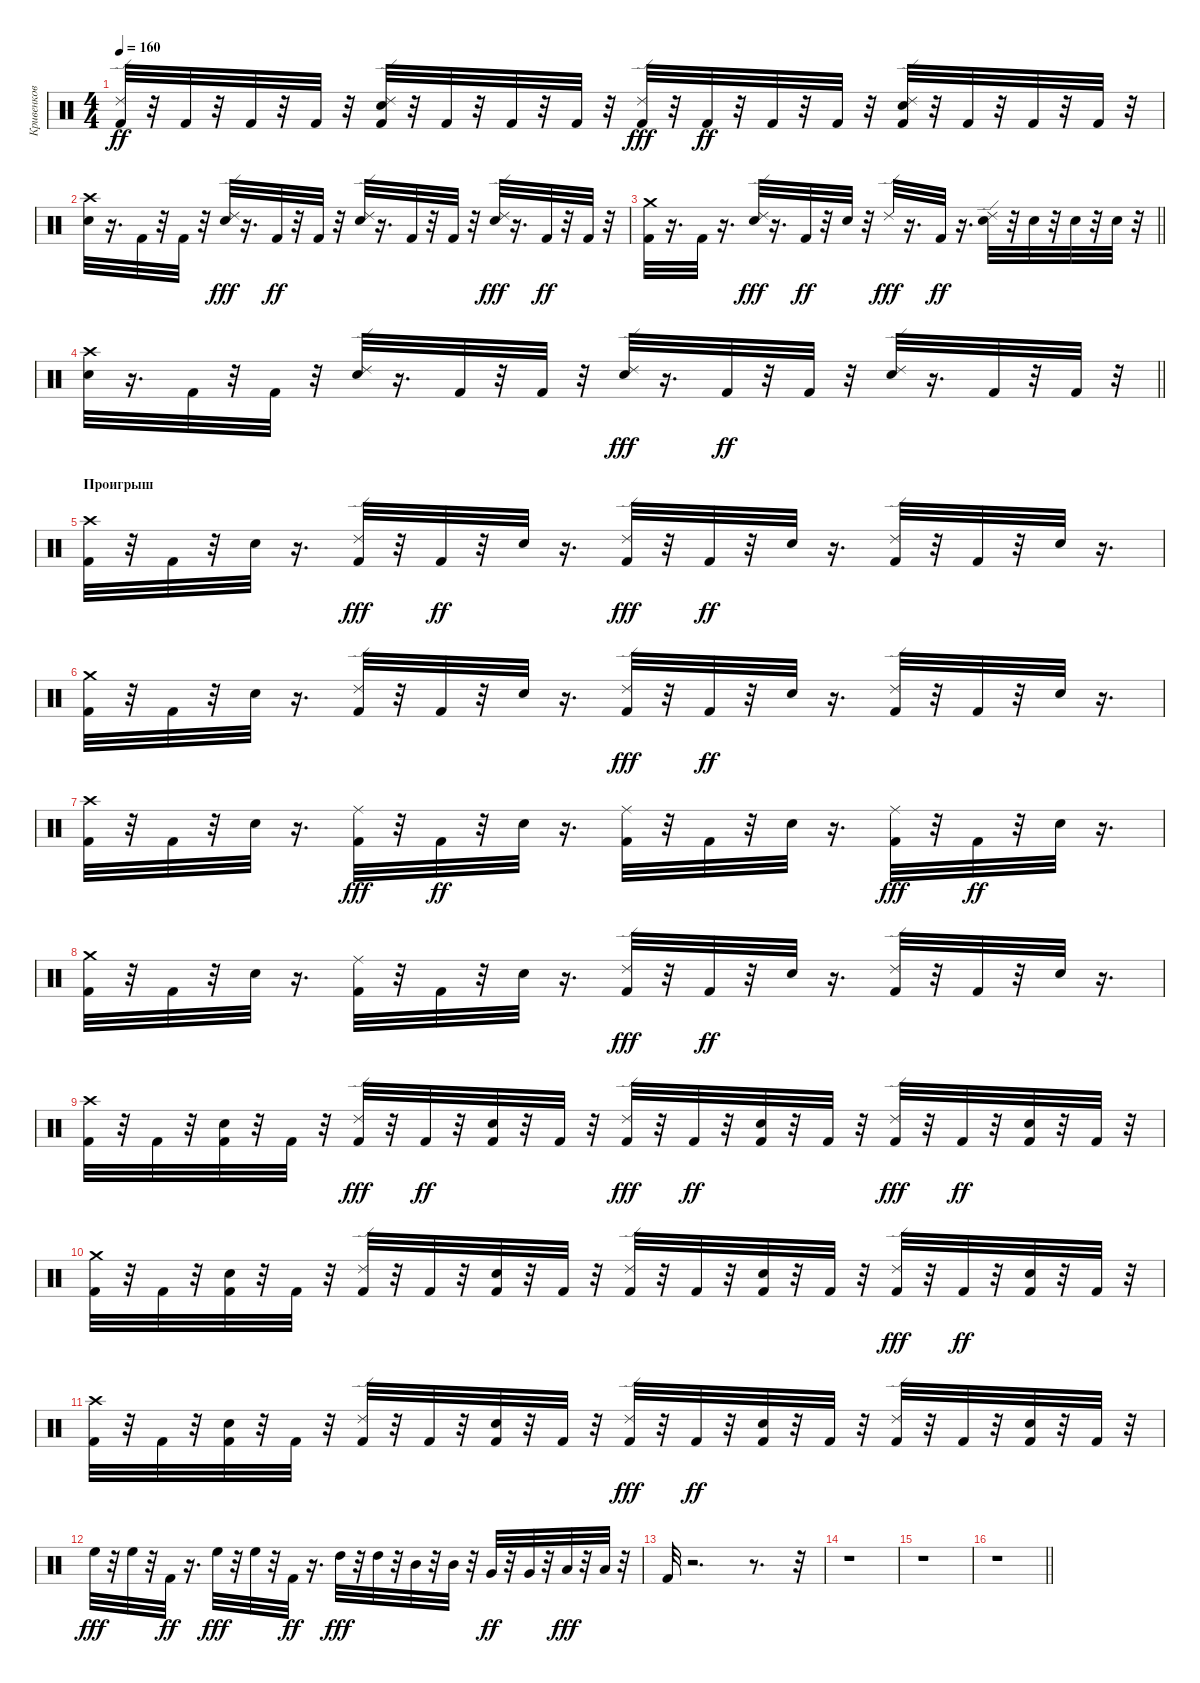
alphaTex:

\track ("Кривенков" "Кривенков") {instrument percussion}
\staff {score}
\articulation defaults
\ts (4 4)
\tempo 160
\clef neutral
\ks c
("Ride (edge) 2" "Kick (hit) 2").32{dy ff} r.32 "Kick (hit) 2".32 r.32 "Kick (hit) 2".32 r.32 "Kick (hit) 2".32 r.32 ("Electric Snare (hit)" "Ride (edge) 2" "Kick (hit) 2").32 r.32 "Kick (hit) 2".32 r.32 "Kick (hit) 2".32 r.32 "Kick (hit) 2".32 r.32 ("Kick (hit) 2" "Ride (edge) 2").32{dy fff} r.32 "Kick (hit) 2".32{dy ff} r.32 "Kick (hit) 2".32 r.32 "Kick (hit) 2".32 r.32 ("Ride (edge) 2" "Electric Snare (hit)" "Kick (hit) 2").32 r.32 "Kick (hit) 2".32 r.32 "Kick (hit) 2".32 r.32 "Kick (hit) 2".32 r.32 |
("Crash high (hit)" "Electric Snare (hit)").32 r.16{d} "Kick (hit) 2".32 r.32 "Kick (hit) 2".32 r.32 ("Electric Snare (hit)" "Ride (edge) 2").32{dy fff} r.16{d} "Kick (hit) 2".32{dy ff} r.32 "Kick (hit) 2".32 r.32 ("Ride (edge) 2" "Electric Snare (hit)").32 r.16{d} "Kick (hit) 2".32 r.32 "Kick (hit) 2".32 r.32 ("Electric Snare (hit)" "Ride (edge) 2").32{dy fff} r.16{d} "Kick (hit) 2".32{dy ff} r.32 "Kick (hit) 2".32 r.32 |
\barLineRight lightlight
("Crash medium (hit)" "Kick (hit) 2").32 r.16{d} "Kick (hit) 2".32 r.16{d} ("Electric Snare (hit)" "Ride (edge) 2").32{dy fff} r.16{d} "Kick (hit) 2".32{dy ff} r.32 "Electric Snare (hit)".32 r.32 "Ride (edge) 2".32{dy fff} r.16{d} "Kick (hit) 2".32{dy ff} r.16{d} ("Ride (edge) 2" "Electric Snare (hit)").32 r.32 "Electric Snare (hit)".32 r.32 "Electric Snare (hit)".32 r.32 "Electric Snare (hit)".32 r.32 |
\barLineRight lightlight
("Electric Snare (hit)" "Crash high (hit)").32 r.16{d} "Kick (hit) 2".32 r.32 "Kick (hit) 2".32 r.32 ("Ride (edge) 2" "Electric Snare (hit)").32 r.16{d} "Kick (hit) 2".32 r.32 "Kick (hit) 2".32 r.32 ("Electric Snare (hit)" "Ride (edge) 2").32{dy fff} r.16{d} "Kick (hit) 2".32{dy ff} r.32 "Kick (hit) 2".32 r.32 ("Ride (edge) 2" "Electric Snare (hit)").32 r.16{d} "Kick (hit) 2".32 r.32 "Kick (hit) 2".32 r.32 |
\section ("" "Проигрыш")
("Kick (hit) 2" "Crash high (hit)").32 r.32 "Kick (hit) 2".32 r.32 "Electric Snare (hit)".32 r.16{d} ("Kick (hit) 2" "Ride (edge) 2").32{dy fff} r.32 "Kick (hit) 2".32{dy ff} r.32 "Electric Snare (hit)".32 r.16{d} ("Kick (hit) 2" "Ride (edge) 2").32{dy fff} r.32 "Kick (hit) 2".32{dy ff} r.32 "Electric Snare (hit)".32 r.16{d} ("Ride (edge) 2" "Kick (hit) 2").32 r.32 "Kick (hit) 2".32 r.32 "Electric Snare (hit)".32 r.16{d} |
("Crash medium (hit)" "Kick (hit) 2").32 r.32 "Kick (hit) 2".32 r.32 "Electric Snare (hit)".32 r.16{d} ("Ride (edge) 2" "Kick (hit) 2").32 r.32 "Kick (hit) 2".32 r.32 "Electric Snare (hit)".32 r.16{d} ("Kick (hit) 2" "Ride (edge) 2").32{dy fff} r.32 "Kick (hit) 2".32{dy ff} r.32 "Electric Snare (hit)".32 r.16{d} ("Ride (edge) 2" "Kick (hit) 2").32 r.32 "Kick (hit) 2".32 r.32 "Electric Snare (hit)".32 r.16{d} |
("Crash high (hit)" "Kick (hit) 2").32 r.32 "Kick (hit) 2".32 r.32 "Electric Snare (hit)".32 r.16{d} ("Kick (hit) 2" "Ride (middle)").32{dy fff} r.32 "Kick (hit) 2".32{dy ff} r.32 "Electric Snare (hit)".32 r.16{d} ("Ride (middle)" "Kick (hit) 2").32 r.32 "Kick (hit) 2".32 r.32 "Electric Snare (hit)".32 r.16{d} ("Kick (hit) 2" "Ride (middle)").32{dy fff} r.32 "Kick (hit) 2".32{dy ff} r.32 "Electric Snare (hit)".32 r.16{d} |
("Kick (hit) 2" "Crash medium (hit)").32 r.32 "Kick (hit) 2".32 r.32 "Electric Snare (hit)".32 r.16{d} ("Ride (middle)" "Kick (hit) 2").32 r.32 "Kick (hit) 2".32 r.32 "Electric Snare (hit)".32 r.16{d} ("Kick (hit) 2" "Ride (edge) 2").32{dy fff} r.32 "Kick (hit) 2".32{dy ff} r.32 "Electric Snare (hit)".32 r.16{d} ("Ride (edge) 2" "Kick (hit) 2").32 r.32 "Kick (hit) 2".32 r.32 "Electric Snare (hit)".32 r.16{d} |
("Crash high (hit)" "Kick (hit) 2").32 r.32 "Kick (hit) 2".32 r.32 ("Kick (hit) 2" "Electric Snare (hit)").32 r.32 "Kick (hit) 2".32 r.32 ("Kick (hit) 2" "Ride (edge) 2").32{dy fff} r.32 "Kick (hit) 2".32{dy ff} r.32 ("Kick (hit) 2" "Electric Snare (hit)").32 r.32 "Kick (hit) 2".32 r.32 ("Kick (hit) 2" "Ride (edge) 2").32{dy fff} r.32 "Kick (hit) 2".32{dy ff} r.32 ("Electric Snare (hit)" "Kick (hit) 2").32 r.32 "Kick (hit) 2".32 r.32 ("Kick (hit) 2" "Ride (edge) 2").32{dy fff} r.32 "Kick (hit) 2".32{dy ff} r.32 ("Electric Snare (hit)" "Kick (hit) 2").32 r.32 "Kick (hit) 2".32 r.32 |
("Kick (hit) 2" "Crash medium (hit)").32 r.32 "Kick (hit) 2".32 r.32 ("Kick (hit) 2" "Electric Snare (hit)").32 r.32 "Kick (hit) 2".32 r.32 ("Ride (edge) 2" "Kick (hit) 2").32 r.32 "Kick (hit) 2".32 r.32 ("Electric Snare (hit)" "Kick (hit) 2").32 r.32 "Kick (hit) 2".32 r.32 ("Ride (edge) 2" "Kick (hit) 2").32 r.32 "Kick (hit) 2".32 r.32 ("Kick (hit) 2" "Electric Snare (hit)").32 r.32 "Kick (hit) 2".32 r.32 ("Kick (hit) 2" "Ride (edge) 2").32{dy fff} r.32 "Kick (hit) 2".32{dy ff} r.32 ("Kick (hit) 2" "Electric Snare (hit)").32 r.32 "Kick (hit) 2".32 r.32 |
("Kick (hit) 2" "Crash high (hit)").32 r.32 "Kick (hit) 2".32 r.32 ("Electric Snare (hit)" "Kick (hit) 2").32 r.32 "Kick (hit) 2".32 r.32 ("Ride (edge) 2" "Kick (hit) 2").32 r.32 "Kick (hit) 2".32 r.32 ("Kick (hit) 2" "Electric Snare (hit)").32 r.32 "Kick (hit) 2".32 r.32 ("Kick (hit) 2" "Ride (edge) 2").32{dy fff} r.32 "Kick (hit) 2".32{dy ff} r.32 ("Electric Snare (hit)" "Kick (hit) 2").32 r.32 "Kick (hit) 2".32 r.32 ("Ride (edge) 2" "Kick (hit) 2").32 r.32 "Kick (hit) 2".32 r.32 ("Kick (hit) 2" "Electric Snare (hit)").32 r.32 "Kick (hit) 2".32 r.32 |
"High Floor Tom (hit)".32{dy fff} r.32 "High Floor Tom (hit)".32 r.32 "Kick (hit) 2".32{dy ff} r.16{d} "High Floor Tom (hit)".32{dy fff} r.32 "High Floor Tom (hit)".32 r.32 "Kick (hit) 2".32{dy ff} r.16{d} "High Tom (hit)".32{dy fff} r.32 "High Tom (hit)".32 r.32 "Mid Tom (hit)".32 r.32 "Mid Tom (hit)".32 r.32 "Very Low Tom (hit)".32{dy ff} r.32 "Very Low Tom (hit)".32 r.32 "Low Tom (hit)".32{dy fff} r.32 "Low Tom (hit)".32 r.32 |
"Kick (hit) 2".32 r.2{d} r.8{d} r.32 |
r.1 |
r.1 |
\barLineRight lightlight
r.1
